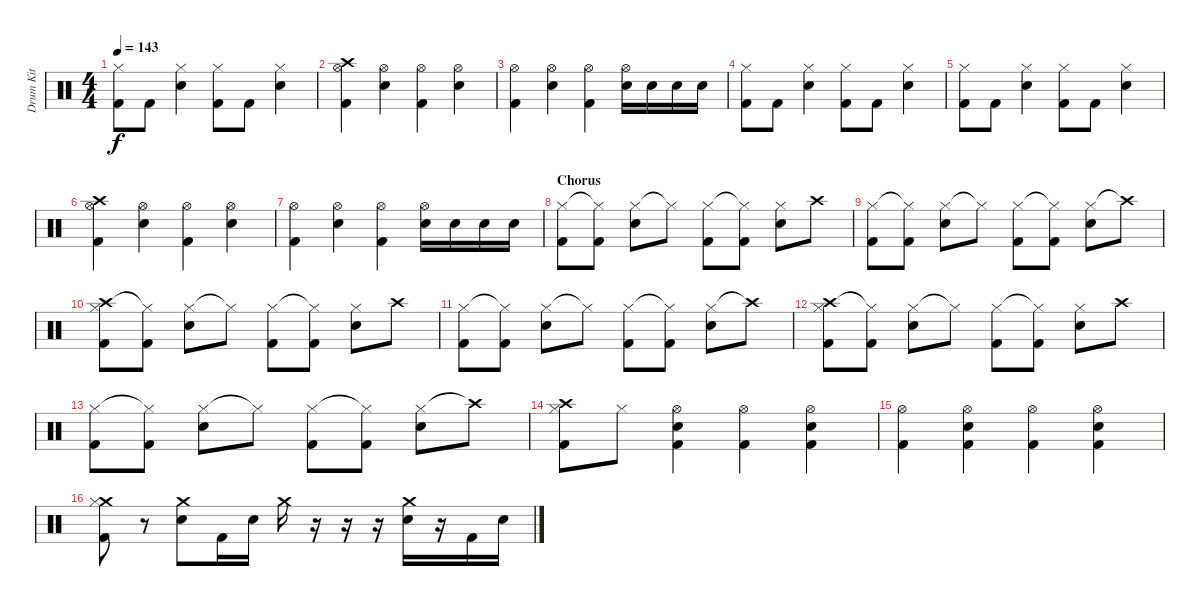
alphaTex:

\track ("Drum Kit" "Drum Kit") {instrument percussion}
\staff {score}
\articulation defaults
\ts (4 4)
\tempo 143
\clef neutral
\ks c
("Hi-Hat (closed)" "Kick (hit) 2").8{dy f} "Kick (hit) 2".8 ("Hi-Hat (closed)" "Snare (hit) 2").4 ("Hi-Hat (closed)" "Kick (hit) 2").8 "Kick (hit) 2".8 ("Hi-Hat (closed)" "Snare (hit) 2").4 |
("Hi-Hat (open)" "Crash high (hit)" "Kick (hit) 2").4 ("Hi-Hat (open)" "Snare (hit) 2").4 ("Hi-Hat (open)" "Kick (hit) 2").4 ("Hi-Hat (open)" "Snare (hit) 2").4 |
("Hi-Hat (open)" "Kick (hit) 2").4 ("Hi-Hat (open)" "Snare (hit) 2").4 ("Hi-Hat (open)" "Kick (hit) 2").4 ("Hi-Hat (open)" "Snare (hit) 2").16 "Snare (hit) 2".16 "Snare (hit) 2".16 "Snare (hit) 2".16 |
("Hi-Hat (closed)" "Kick (hit) 2").8 "Kick (hit) 2".8 ("Hi-Hat (closed)" "Snare (hit) 2").4 ("Hi-Hat (closed)" "Kick (hit) 2").8 "Kick (hit) 2".8 ("Hi-Hat (closed)" "Snare (hit) 2").4 |
("Hi-Hat (closed)" "Kick (hit) 2").8 "Kick (hit) 2".8 ("Hi-Hat (closed)" "Snare (hit) 2").4 ("Hi-Hat (closed)" "Kick (hit) 2").8 "Kick (hit) 2".8 ("Hi-Hat (closed)" "Snare (hit) 2").4 |
("Hi-Hat (open)" "Crash high (hit)" "Kick (hit) 2").4 ("Hi-Hat (open)" "Snare (hit) 2").4 ("Hi-Hat (open)" "Kick (hit) 2").4 ("Hi-Hat (open)" "Snare (hit) 2").4 |
("Hi-Hat (open)" "Kick (hit) 2").4 ("Hi-Hat (open)" "Snare (hit) 2").4 ("Hi-Hat (open)" "Kick (hit) 2").4 ("Hi-Hat (open)" "Snare (hit) 2").16 "Snare (hit) 2".16 "Snare (hit) 2".16 "Snare (hit) 2".16 |
\section ("" "Chorus")
("Hi-Hat (closed)" "Kick (hit) 2").8 ("Hi-Hat (closed)"{t} "Kick (hit) 2").8 ("Hi-Hat (closed)" "Snare (hit) 2").8 "Hi-Hat (closed)"{t}.8 ("Hi-Hat (closed)" "Kick (hit) 2").8 ("Hi-Hat (closed)"{t} "Kick (hit) 2").8 ("Hi-Hat (closed)" "Snare (hit) 2").8 "Crash high (hit)".8 |
("Hi-Hat (closed)" "Kick (hit) 2").8 ("Hi-Hat (closed)"{t} "Kick (hit) 2").8 ("Hi-Hat (closed)" "Snare (hit) 2").8 "Hi-Hat (closed)"{t}.8 ("Hi-Hat (closed)" "Kick (hit) 2").8 ("Hi-Hat (closed)"{t} "Kick (hit) 2").8 ("Hi-Hat (closed)" "Snare (hit) 2").8 "Crash high (hit)"{t}.8 |
("Crash high (hit)" "Hi-Hat (closed)" "Kick (hit) 2").8 ("Hi-Hat (closed)"{t} "Kick (hit) 2").8 ("Hi-Hat (closed)" "Snare (hit) 2").8 "Hi-Hat (closed)"{t}.8 ("Hi-Hat (closed)" "Kick (hit) 2").8 ("Hi-Hat (closed)"{t} "Kick (hit) 2").8 ("Hi-Hat (closed)" "Snare (hit) 2").8 "Crash high (hit)".8 |
("Hi-Hat (closed)" "Kick (hit) 2").8 ("Hi-Hat (closed)"{t} "Kick (hit) 2").8 ("Hi-Hat (closed)" "Snare (hit) 2").8 "Hi-Hat (closed)"{t}.8 ("Hi-Hat (closed)" "Kick (hit) 2").8 ("Hi-Hat (closed)"{t} "Kick (hit) 2").8 ("Hi-Hat (closed)" "Snare (hit) 2").8 "Crash high (hit)"{t}.8 |
("Crash high (hit)" "Hi-Hat (closed)" "Kick (hit) 2").8 ("Hi-Hat (closed)"{t} "Kick (hit) 2").8 ("Hi-Hat (closed)" "Snare (hit) 2").8 "Hi-Hat (closed)"{t}.8 ("Hi-Hat (closed)" "Kick (hit) 2").8 ("Hi-Hat (closed)"{t} "Kick (hit) 2").8 ("Hi-Hat (closed)" "Snare (hit) 2").8 "Crash high (hit)".8 |
("Hi-Hat (closed)" "Kick (hit) 2").8 ("Hi-Hat (closed)"{t} "Kick (hit) 2").8 ("Hi-Hat (closed)" "Snare (hit) 2").8 "Hi-Hat (closed)"{t}.8 ("Hi-Hat (closed)" "Kick (hit) 2").8 ("Hi-Hat (closed)"{t} "Kick (hit) 2").8 ("Hi-Hat (closed)" "Snare (hit) 2").8 "Crash high (hit)"{t}.8 |
("Crash high (hit)" "Hi-Hat (closed)" "Kick (hit) 2").8 "Hi-Hat (closed)".8 ("Snare (hit) 2" "Hi-Hat (open)" "Kick (hit) 2").4 ("Hi-Hat (open)" "Kick (hit) 2").4 ("Hi-Hat (open)" "Snare (hit) 2" "Kick (hit) 2").4 |
("Hi-Hat (open)" "Kick (hit) 2").4 ("Hi-Hat (open)" "Snare (hit) 2" "Kick (hit) 2").4 ("Hi-Hat (open)" "Kick (hit) 2").4 ("Hi-Hat (open)" "Snare (hit) 2" "Kick (hit) 2").4 |
("Crash medium (hit)" "Hi-Hat (closed)" "Kick (hit) 2").8 r.8 ("Crash medium (hit)" "Snare (hit) 2").8 "Kick (hit) 2".16 "Snare (hit) 2".16 "Crash medium (hit)".16 r.16 r.16 r.16 ("Crash medium (hit)" "Snare (hit) 2").16 r.16 "Kick (hit) 2".16 "Snare (hit) 2".16
